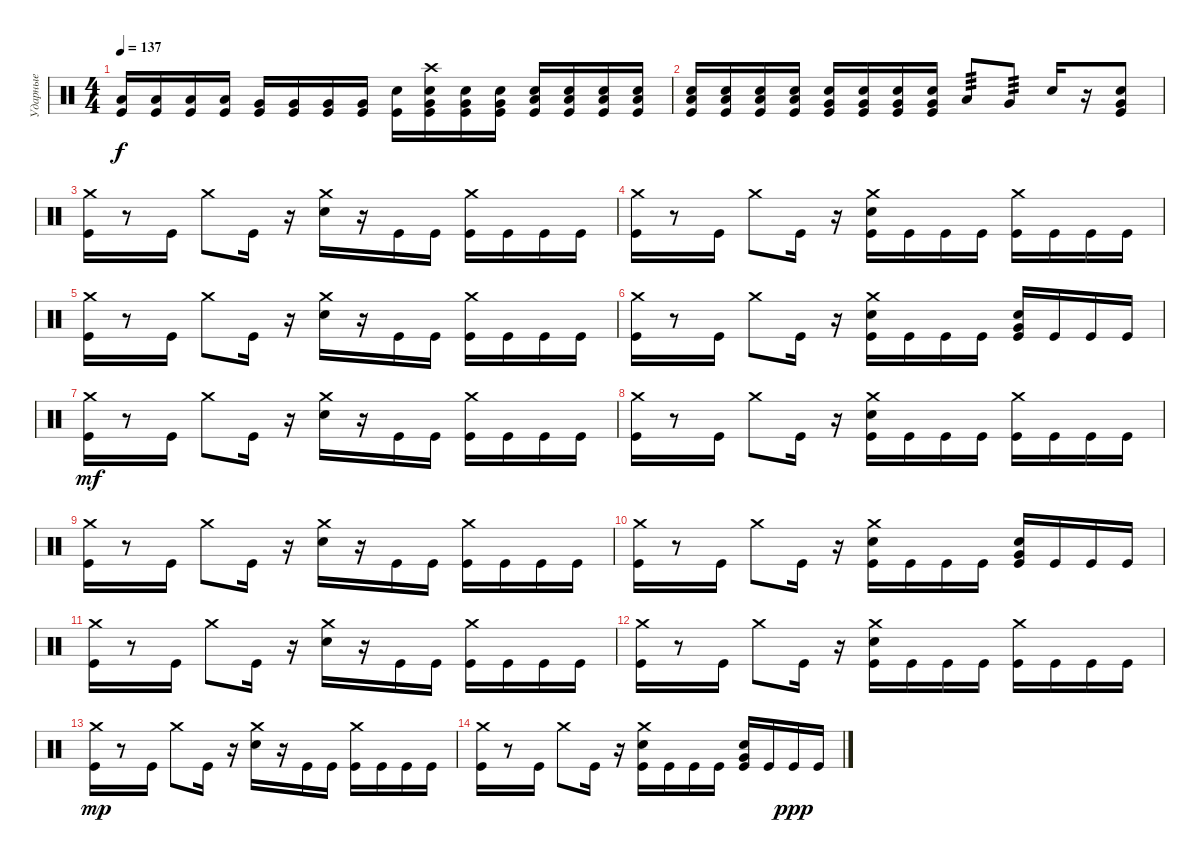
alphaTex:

\track ("Ударные" "Ударные") {instrument percussion}
\staff {score}
\articulation defaults
\ts (4 4)
\tempo 137
\clef neutral
\ks c
("Kick (hit)" "Low Tom (hit)").16{dy f} ("Kick (hit)" "Low Tom (hit)").16 ("Kick (hit)" "Low Tom (hit)").16 ("Kick (hit)" "Low Tom (hit)").16 ("Kick (hit)" "Very Low Tom (hit)").16 ("Kick (hit)" "Very Low Tom (hit)").16 ("Kick (hit)" "Very Low Tom (hit)").16 ("Kick (hit)" "Very Low Tom (hit)").16 ("Kick (hit)" "Snare (hit) 2").16 ("Kick (hit)" "Very Low Tom (hit)" "Snare (hit) 2" "Crash high (hit)").16 ("Kick (hit)" "Very Low Tom (hit)" "Snare (hit) 2").16 ("Kick (hit)" "Very Low Tom (hit)" "Snare (hit) 2").16 ("Kick (hit)" "Low Tom (hit)" "Snare (hit) 2").16 ("Kick (hit)" "Low Tom (hit)" "Snare (hit) 2").16 ("Kick (hit)" "Low Tom (hit)" "Snare (hit) 2").16 ("Kick (hit)" "Low Tom (hit)" "Snare (hit) 2").16 |
("Kick (hit)" "Low Tom (hit)" "Snare (hit) 2").16 ("Kick (hit)" "Low Tom (hit)" "Snare (hit) 2").16 ("Kick (hit)" "Low Tom (hit)" "Snare (hit) 2").16 ("Kick (hit)" "Low Tom (hit)" "Snare (hit) 2").16 ("Kick (hit)" "Very Low Tom (hit)" "Snare (hit) 2").16 ("Kick (hit)" "Very Low Tom (hit)" "Snare (hit) 2").16 ("Kick (hit)" "Very Low Tom (hit)" "Snare (hit) 2").16 ("Kick (hit)" "Very Low Tom (hit)" "Snare (hit) 2").16 "Low Tom (hit)".8{tp 3} "Very Low Tom (hit)".8{tp 3} "Snare (hit) 2".16 r.16 ("Kick (hit)" "Snare (hit) 2" "Very Low Tom (hit)").8 |
("Kick (hit)" "Crash medium (hit)").16 r.8 "Kick (hit)".16 "Crash medium (hit)".8 "Kick (hit)".16 r.16 ("Crash medium (hit)" "Snare (hit) 2").16 r.16 "Kick (hit)".16 "Kick (hit)".16 ("Kick (hit)" "Crash medium (hit)").16 "Kick (hit)".16 "Kick (hit)".16 "Kick (hit)".16 |
("Kick (hit)" "Crash medium (hit)").16 r.8 "Kick (hit)".16 "Crash medium (hit)".8 "Kick (hit)".16 r.16 ("Kick (hit)" "Crash medium (hit)" "Snare (hit) 2").16 "Kick (hit)".16 "Kick (hit)".16 "Kick (hit)".16 ("Kick (hit)" "Crash medium (hit)").16 "Kick (hit)".16 "Kick (hit)".16 "Kick (hit)".16 |
("Kick (hit)" "Crash medium (hit)").16 r.8 "Kick (hit)".16 "Crash medium (hit)".8 "Kick (hit)".16 r.16 ("Crash medium (hit)" "Snare (hit) 2").16 r.16 "Kick (hit)".16 "Kick (hit)".16 ("Kick (hit)" "Crash medium (hit)").16 "Kick (hit)".16 "Kick (hit)".16 "Kick (hit)".16 |
("Kick (hit)" "Crash medium (hit)").16 r.8 "Kick (hit)".16 "Crash medium (hit)".8 "Kick (hit)".16 r.16 ("Kick (hit)" "Crash medium (hit)" "Snare (hit) 2").16 "Kick (hit)".16 "Kick (hit)".16 "Kick (hit)".16 ("Kick (hit)" "Snare (hit) 2" "Very Low Tom (hit)").16 "Kick (hit)".16 "Kick (hit)".16 "Kick (hit)".16 |
("Kick (hit)" "Crash medium (hit)").16{dy mf} r.8 "Kick (hit)".16 "Crash medium (hit)".8 "Kick (hit)".16 r.16 ("Crash medium (hit)" "Snare (hit) 2").16 r.16 "Kick (hit)".16 "Kick (hit)".16 ("Kick (hit)" "Crash medium (hit)").16 "Kick (hit)".16 "Kick (hit)".16 "Kick (hit)".16 |
("Kick (hit)" "Crash medium (hit)").16 r.8 "Kick (hit)".16 "Crash medium (hit)".8 "Kick (hit)".16 r.16 ("Kick (hit)" "Crash medium (hit)" "Snare (hit) 2").16 "Kick (hit)".16 "Kick (hit)".16 "Kick (hit)".16 ("Kick (hit)" "Crash medium (hit)").16 "Kick (hit)".16 "Kick (hit)".16 "Kick (hit)".16 |
("Kick (hit)" "Crash medium (hit)").16 r.8 "Kick (hit)".16 "Crash medium (hit)".8 "Kick (hit)".16 r.16 ("Crash medium (hit)" "Snare (hit) 2").16 r.16 "Kick (hit)".16 "Kick (hit)".16 ("Kick (hit)" "Crash medium (hit)").16 "Kick (hit)".16 "Kick (hit)".16 "Kick (hit)".16 |
("Kick (hit)" "Crash medium (hit)").16 r.8 "Kick (hit)".16 "Crash medium (hit)".8 "Kick (hit)".16 r.16 ("Kick (hit)" "Crash medium (hit)" "Snare (hit) 2").16 "Kick (hit)".16 "Kick (hit)".16 "Kick (hit)".16 ("Kick (hit)" "Snare (hit) 2" "Very Low Tom (hit)").16 "Kick (hit)".16 "Kick (hit)".16 "Kick (hit)".16 |
("Kick (hit)" "Crash medium (hit)").16 r.8 "Kick (hit)".16 "Crash medium (hit)".8 "Kick (hit)".16 r.16 ("Crash medium (hit)" "Snare (hit) 2").16 r.16 "Kick (hit)".16 "Kick (hit)".16 ("Kick (hit)" "Crash medium (hit)").16 "Kick (hit)".16 "Kick (hit)".16 "Kick (hit)".16 |
("Kick (hit)" "Crash medium (hit)").16 r.8 "Kick (hit)".16 "Crash medium (hit)".8 "Kick (hit)".16 r.16 ("Kick (hit)" "Crash medium (hit)" "Snare (hit) 2").16 "Kick (hit)".16 "Kick (hit)".16 "Kick (hit)".16 ("Kick (hit)" "Crash medium (hit)").16 "Kick (hit)".16 "Kick (hit)".16 "Kick (hit)".16 |
("Kick (hit)" "Crash medium (hit)").16{dy mp} r.8 "Kick (hit)".16 "Crash medium (hit)".8 "Kick (hit)".16 r.16 ("Crash medium (hit)" "Snare (hit) 2").16 r.16 "Kick (hit)".16 "Kick (hit)".16 ("Kick (hit)" "Crash medium (hit)").16 "Kick (hit)".16 "Kick (hit)".16 "Kick (hit)".16 |
("Kick (hit)" "Crash medium (hit)").16 r.8 "Kick (hit)".16 "Crash medium (hit)".8 "Kick (hit)".16 r.16 ("Kick (hit)" "Crash medium (hit)" "Snare (hit) 2").16 "Kick (hit)".16 "Kick (hit)".16 "Kick (hit)".16 ("Kick (hit)" "Snare (hit) 2" "Very Low Tom (hit)").16 "Kick (hit)".16 "Kick (hit)".16{dy ppp} "Kick (hit)".16
